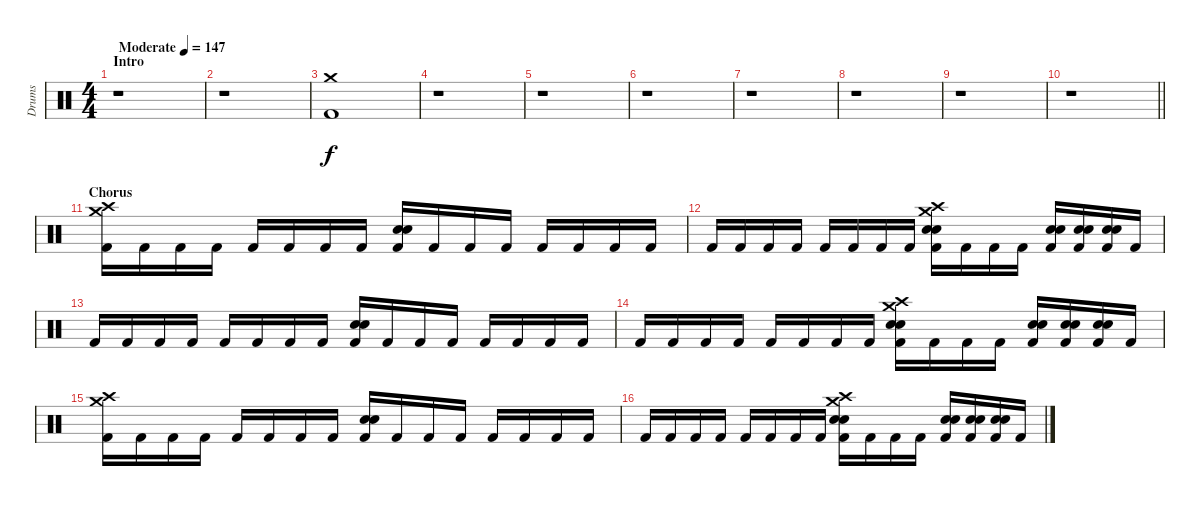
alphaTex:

\track ("Drums" "Drums") {instrument percussion}
\staff
\articulation defaults
\ts (4 4)
\section ("" "Intro")
\tempo (147 "Moderate")
\clef neutral
\ks c
r.1{dy f} |
r.1 |
("Crash medium (hit)" "Kick (hit) 2").1 |
r.1 |
r.1 |
r.1 |
r.1 |
r.1 |
r.1 |
\barLineRight lightlight
r.1 |
\section ("" "Chorus")
("Crash high (hit)" "Kick (hit) 2" "Crash medium (hit)").16 "Kick (hit) 2".16 "Kick (hit) 2".16 "Kick (hit) 2".16 "Kick (hit) 2".16 "Kick (hit) 2".16 "Kick (hit) 2".16 "Kick (hit) 2".16 ("Kick (hit) 2" "Electric Snare (hit)" "Snare (hit) 2").16 "Kick (hit) 2".16 "Kick (hit) 2".16 "Kick (hit) 2".16 "Kick (hit) 2".16 "Kick (hit) 2".16 "Kick (hit) 2".16 "Kick (hit) 2".16 |
"Kick (hit) 2".16 "Kick (hit) 2".16 "Kick (hit) 2".16 "Kick (hit) 2".16 "Kick (hit) 2".16 "Kick (hit) 2".16 "Kick (hit) 2".16 "Kick (hit) 2".16 ("Crash medium (hit)" "Crash high (hit)" "Kick (hit) 2" "Electric Snare (hit)" "Snare (hit) 2").16 "Kick (hit) 2".16 "Kick (hit) 2".16 "Kick (hit) 2".16 ("Kick (hit) 2" "Electric Snare (hit)" "Snare (hit) 2").16 ("Kick (hit) 2" "Electric Snare (hit)" "Snare (hit) 2").16 ("Kick (hit) 2" "Electric Snare (hit)" "Snare (hit) 2").16 "Kick (hit) 2".16 |
"Kick (hit) 2".16 "Kick (hit) 2".16 "Kick (hit) 2".16 "Kick (hit) 2".16 "Kick (hit) 2".16 "Kick (hit) 2".16 "Kick (hit) 2".16 "Kick (hit) 2".16 ("Kick (hit) 2" "Electric Snare (hit)" "Snare (hit) 2").16 "Kick (hit) 2".16 "Kick (hit) 2".16 "Kick (hit) 2".16 "Kick (hit) 2".16 "Kick (hit) 2".16 "Kick (hit) 2".16 "Kick (hit) 2".16 |
"Kick (hit) 2".16 "Kick (hit) 2".16 "Kick (hit) 2".16 "Kick (hit) 2".16 "Kick (hit) 2".16 "Kick (hit) 2".16 "Kick (hit) 2".16 "Kick (hit) 2".16 ("Crash medium (hit)" "Crash high (hit)" "Kick (hit) 2" "Electric Snare (hit)" "Snare (hit) 2").16 "Kick (hit) 2".16 "Kick (hit) 2".16 "Kick (hit) 2".16 ("Kick (hit) 2" "Electric Snare (hit)" "Snare (hit) 2").16 ("Kick (hit) 2" "Electric Snare (hit)" "Snare (hit) 2").16 ("Kick (hit) 2" "Electric Snare (hit)" "Snare (hit) 2").16 "Kick (hit) 2".16 |
("Crash high (hit)" "Kick (hit) 2" "Crash medium (hit)").16 "Kick (hit) 2".16 "Kick (hit) 2".16 "Kick (hit) 2".16 "Kick (hit) 2".16 "Kick (hit) 2".16 "Kick (hit) 2".16 "Kick (hit) 2".16 ("Kick (hit) 2" "Electric Snare (hit)" "Snare (hit) 2").16 "Kick (hit) 2".16 "Kick (hit) 2".16 "Kick (hit) 2".16 "Kick (hit) 2".16 "Kick (hit) 2".16 "Kick (hit) 2".16 "Kick (hit) 2".16 |
"Kick (hit) 2".16 "Kick (hit) 2".16 "Kick (hit) 2".16 "Kick (hit) 2".16 "Kick (hit) 2".16 "Kick (hit) 2".16 "Kick (hit) 2".16 "Kick (hit) 2".16 ("Crash medium (hit)" "Crash high (hit)" "Kick (hit) 2" "Electric Snare (hit)" "Snare (hit) 2").16 "Kick (hit) 2".16 "Kick (hit) 2".16 "Kick (hit) 2".16 ("Kick (hit) 2" "Electric Snare (hit)" "Snare (hit) 2").16 ("Kick (hit) 2" "Electric Snare (hit)" "Snare (hit) 2").16 ("Kick (hit) 2" "Electric Snare (hit)" "Snare (hit) 2").16 "Kick (hit) 2".16
